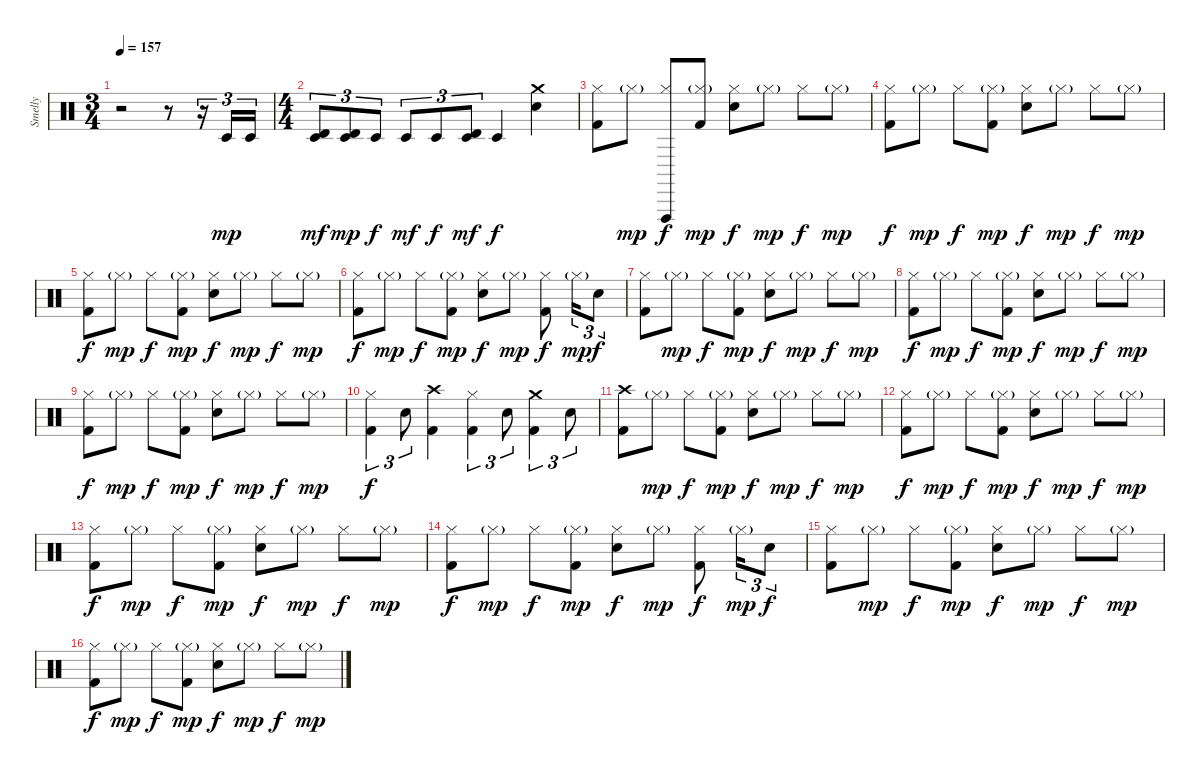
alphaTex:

\track ("Smelly" "Smelly") {instrument percussion}
\staff {score}
\articulation defaults
\ts (3 4)
\tempo 157
\clef neutral
\ks c
r.2{dy mp} r.8 r.16{tu (3 2)} "Timbale low (hit)".16{tu (3 2)} "Timbale low (hit)".16{tu (3 2)} |
\ts (4 4)
("Timbale high (hit)" "Timbale low (hit)").8{tu (3 2) dy mf} ("Timbale high (hit)" "Timbale low (hit)").8{tu (3 2) dy mp} "Timbale low (hit)".8{tu (3 2) dy f} "Timbale low (hit)".8{tu (3 2) dy mf} "Timbale low (hit)".8{tu (3 2) dy f} ("Timbale high (hit)" "Timbale low (hit)").8{tu (3 2) dy mf} "Timbale low (hit)".4{dy f} ("Crash medium (hit)" "Electric Snare (hit)").4 |
("Hi-Hat (closed)" "Kick (hit) 2").8 "Hi-Hat (closed)"{g}.8{dy mp} ("Hi-Hat (closed)" "Vibraslap (hit)").8{dy f} ("Hi-Hat (closed)"{g} "Kick (hit) 2").8{dy mp} ("Hi-Hat (closed)" "Electric Snare (hit)").8{dy f} "Hi-Hat (closed)"{g}.8{dy mp} "Hi-Hat (closed)".8{dy f} "Hi-Hat (closed)"{g}.8{dy mp} |
("Hi-Hat (closed)" "Kick (hit) 2").8{dy f} "Hi-Hat (closed)"{g}.8{dy mp} "Hi-Hat (closed)".8{dy f} ("Hi-Hat (closed)"{g} "Kick (hit) 2").8{dy mp} ("Hi-Hat (closed)" "Electric Snare (hit)").8{dy f} "Hi-Hat (closed)"{g}.8{dy mp} "Hi-Hat (closed)".8{dy f} "Hi-Hat (closed)"{g}.8{dy mp} |
("Hi-Hat (closed)" "Kick (hit) 2").8{dy f} "Hi-Hat (closed)"{g}.8{dy mp} "Hi-Hat (closed)".8{dy f} ("Hi-Hat (closed)"{g} "Kick (hit) 2").8{dy mp} ("Hi-Hat (closed)" "Electric Snare (hit)").8{dy f} "Hi-Hat (closed)"{g}.8{dy mp} "Hi-Hat (closed)".8{dy f} "Hi-Hat (closed)"{g}.8{dy mp} |
("Hi-Hat (closed)" "Kick (hit) 2").8{dy f} "Hi-Hat (closed)"{g}.8{dy mp} "Hi-Hat (closed)".8{dy f} ("Hi-Hat (closed)"{g} "Kick (hit) 2").8{dy mp} ("Hi-Hat (closed)" "Electric Snare (hit)").8{dy f} "Hi-Hat (closed)"{g}.8{dy mp} ("Hi-Hat (closed)" "Kick (hit) 2").8{dy f} "Hi-Hat (closed)"{g}.16{tu (3 2) dy mp} "Electric Snare (hit)".8{tu (3 2) dy f} |
("Hi-Hat (closed)" "Kick (hit) 2").8 "Hi-Hat (closed)"{g}.8{dy mp} "Hi-Hat (closed)".8{dy f} ("Hi-Hat (closed)"{g} "Kick (hit) 2").8{dy mp} ("Hi-Hat (closed)" "Electric Snare (hit)").8{dy f} "Hi-Hat (closed)"{g}.8{dy mp} "Hi-Hat (closed)".8{dy f} "Hi-Hat (closed)"{g}.8{dy mp} |
("Hi-Hat (closed)" "Kick (hit) 2").8{dy f} "Hi-Hat (closed)"{g}.8{dy mp} "Hi-Hat (closed)".8{dy f} ("Hi-Hat (closed)"{g} "Kick (hit) 2").8{dy mp} ("Hi-Hat (closed)" "Electric Snare (hit)").8{dy f} "Hi-Hat (closed)"{g}.8{dy mp} "Hi-Hat (closed)".8{dy f} "Hi-Hat (closed)"{g}.8{dy mp} |
("Hi-Hat (closed)" "Kick (hit) 2").8{dy f} "Hi-Hat (closed)"{g}.8{dy mp} "Hi-Hat (closed)".8{dy f} ("Hi-Hat (closed)"{g} "Kick (hit) 2").8{dy mp} ("Hi-Hat (closed)" "Electric Snare (hit)").8{dy f} "Hi-Hat (closed)"{g}.8{dy mp} "Hi-Hat (closed)".8{dy f} "Hi-Hat (closed)"{g}.8{dy mp} |
("Hi-Hat (closed)" "Kick (hit) 2").4{tu (3 2) dy f} "Electric Snare (hit)".8{tu (3 2)} ("Crash high (hit)" "Kick (hit) 2").4 ("Hi-Hat (closed)" "Kick (hit) 2").4{tu (3 2)} "Electric Snare (hit)".8{tu (3 2)} ("Crash medium (hit)" "Kick (hit) 2").4{tu (3 2)} "Electric Snare (hit)".8{tu (3 2)} |
("Crash high (hit)" "Kick (hit) 2").8 "Hi-Hat (closed)"{g}.8{dy mp} "Hi-Hat (closed)".8{dy f} ("Hi-Hat (closed)"{g} "Kick (hit) 2").8{dy mp} ("Hi-Hat (closed)" "Electric Snare (hit)").8{dy f} "Hi-Hat (closed)"{g}.8{dy mp} "Hi-Hat (closed)".8{dy f} "Hi-Hat (closed)"{g}.8{dy mp} |
("Hi-Hat (closed)" "Kick (hit) 2").8{dy f} "Hi-Hat (closed)"{g}.8{dy mp} "Hi-Hat (closed)".8{dy f} ("Hi-Hat (closed)"{g} "Kick (hit) 2").8{dy mp} ("Hi-Hat (closed)" "Electric Snare (hit)").8{dy f} "Hi-Hat (closed)"{g}.8{dy mp} "Hi-Hat (closed)".8{dy f} "Hi-Hat (closed)"{g}.8{dy mp} |
("Hi-Hat (closed)" "Kick (hit) 2").8{dy f} "Hi-Hat (closed)"{g}.8{dy mp} "Hi-Hat (closed)".8{dy f} ("Hi-Hat (closed)"{g} "Kick (hit) 2").8{dy mp} ("Hi-Hat (closed)" "Electric Snare (hit)").8{dy f} "Hi-Hat (closed)"{g}.8{dy mp} "Hi-Hat (closed)".8{dy f} "Hi-Hat (closed)"{g}.8{dy mp} |
("Hi-Hat (closed)" "Kick (hit) 2").8{dy f} "Hi-Hat (closed)"{g}.8{dy mp} "Hi-Hat (closed)".8{dy f} ("Hi-Hat (closed)"{g} "Kick (hit) 2").8{dy mp} ("Hi-Hat (closed)" "Electric Snare (hit)").8{dy f} "Hi-Hat (closed)"{g}.8{dy mp} ("Hi-Hat (closed)" "Kick (hit) 2").8{dy f} "Hi-Hat (closed)"{g}.16{tu (3 2) dy mp} "Electric Snare (hit)".8{tu (3 2) dy f} |
("Hi-Hat (closed)" "Kick (hit) 2").8 "Hi-Hat (closed)"{g}.8{dy mp} "Hi-Hat (closed)".8{dy f} ("Hi-Hat (closed)"{g} "Kick (hit) 2").8{dy mp} ("Hi-Hat (closed)" "Electric Snare (hit)").8{dy f} "Hi-Hat (closed)"{g}.8{dy mp} "Hi-Hat (closed)".8{dy f} "Hi-Hat (closed)"{g}.8{dy mp} |
("Hi-Hat (closed)" "Kick (hit) 2").8{dy f} "Hi-Hat (closed)"{g}.8{dy mp} "Hi-Hat (closed)".8{dy f} ("Hi-Hat (closed)"{g} "Kick (hit) 2").8{dy mp} ("Hi-Hat (closed)" "Electric Snare (hit)").8{dy f} "Hi-Hat (closed)"{g}.8{dy mp} "Hi-Hat (closed)".8{dy f} "Hi-Hat (closed)"{g}.8{dy mp}
